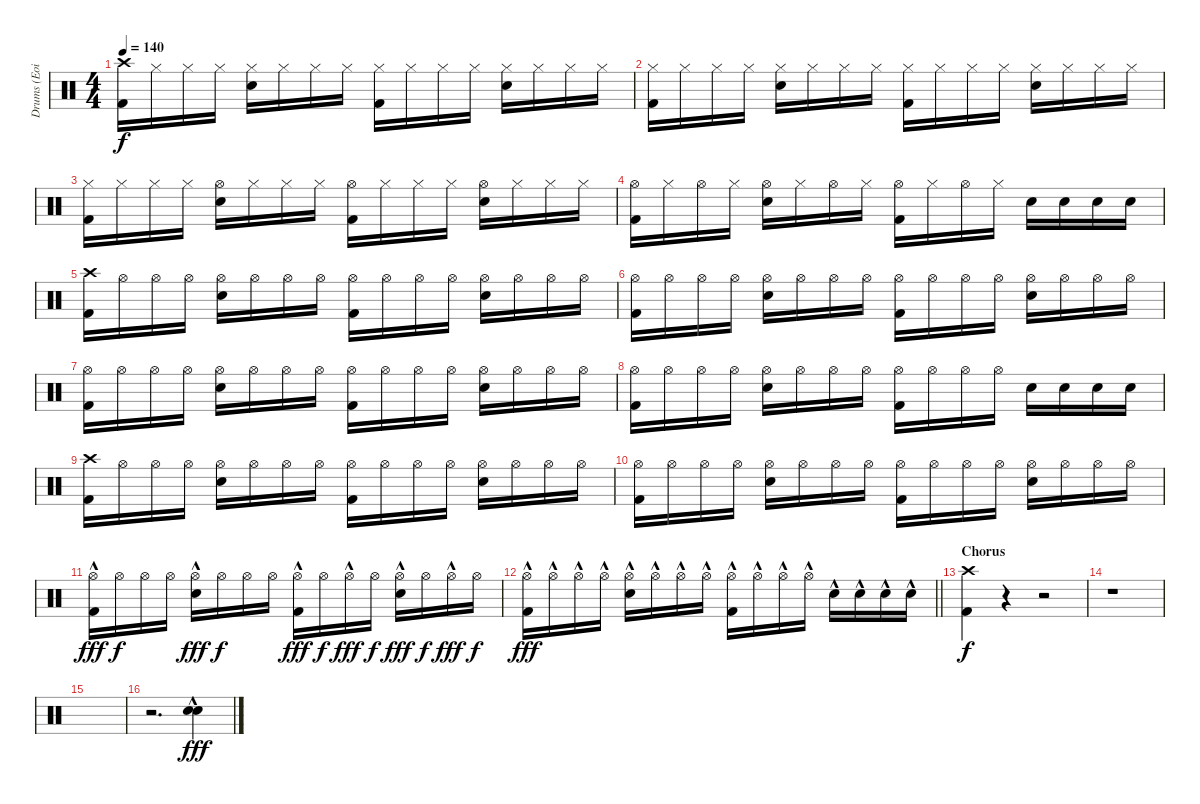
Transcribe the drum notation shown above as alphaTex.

\track ("Drums (Eoin)" "Drums (Eoi") {instrument percussion}
\staff {score}
\articulation defaults
\ts (4 4)
\tempo 140
\clef neutral
\ks c
("Crash high (hit)" "Kick (hit) 2").16{dy f} "Hi-Hat (closed)".16 "Hi-Hat (closed)".16 "Hi-Hat (closed)".16 ("Hi-Hat (closed)" "Electric Snare (hit)").16 "Hi-Hat (closed)".16 "Hi-Hat (closed)".16 "Hi-Hat (closed)".16 ("Hi-Hat (closed)" "Kick (hit) 2").16 "Hi-Hat (closed)".16 "Hi-Hat (closed)".16 "Hi-Hat (closed)".16 ("Hi-Hat (closed)" "Electric Snare (hit)").16 "Hi-Hat (closed)".16 "Hi-Hat (closed)".16 "Hi-Hat (closed)".16 |
("Hi-Hat (closed)" "Kick (hit) 2").16 "Hi-Hat (closed)".16 "Hi-Hat (closed)".16 "Hi-Hat (closed)".16 ("Hi-Hat (closed)" "Electric Snare (hit)").16 "Hi-Hat (closed)".16 "Hi-Hat (closed)".16 "Hi-Hat (closed)".16 ("Hi-Hat (closed)" "Kick (hit) 2").16 "Hi-Hat (closed)".16 "Hi-Hat (closed)".16 "Hi-Hat (closed)".16 ("Hi-Hat (closed)" "Electric Snare (hit)").16 "Hi-Hat (closed)".16 "Hi-Hat (closed)".16 "Hi-Hat (closed)".16 |
("Hi-Hat (closed)" "Kick (hit) 2").16 "Hi-Hat (closed)".16 "Hi-Hat (closed)".16 "Hi-Hat (closed)".16 ("Hi-Hat (open)" "Electric Snare (hit)").16 "Hi-Hat (closed)".16 "Hi-Hat (closed)".16 "Hi-Hat (closed)".16 ("Hi-Hat (open)" "Kick (hit) 2").16 "Hi-Hat (closed)".16 "Hi-Hat (closed)".16 "Hi-Hat (closed)".16 ("Hi-Hat (open)" "Electric Snare (hit)").16 "Hi-Hat (closed)".16 "Hi-Hat (closed)".16 "Hi-Hat (closed)".16 |
("Hi-Hat (open)" "Kick (hit) 2").16 "Hi-Hat (closed)".16 "Hi-Hat (open)".16 "Hi-Hat (closed)".16 ("Hi-Hat (open)" "Electric Snare (hit)").16 "Hi-Hat (closed)".16 "Hi-Hat (open)".16 "Hi-Hat (closed)".16 ("Hi-Hat (open)" "Kick (hit) 2").16 "Hi-Hat (closed)".16 "Hi-Hat (open)".16 "Hi-Hat (closed)".16 "Electric Snare (hit)".16 "Electric Snare (hit)".16 "Electric Snare (hit)".16 "Electric Snare (hit)".16 |
("Crash high (hit)" "Kick (hit) 2").16 "Hi-Hat (open)".16 "Hi-Hat (open)".16 "Hi-Hat (open)".16 ("Hi-Hat (open)" "Electric Snare (hit)").16 "Hi-Hat (open)".16 "Hi-Hat (open)".16 "Hi-Hat (open)".16 ("Hi-Hat (open)" "Kick (hit) 2").16 "Hi-Hat (open)".16 "Hi-Hat (open)".16 "Hi-Hat (open)".16 ("Hi-Hat (open)" "Electric Snare (hit)").16 "Hi-Hat (open)".16 "Hi-Hat (open)".16 "Hi-Hat (open)".16 |
("Hi-Hat (open)" "Kick (hit) 2").16 "Hi-Hat (open)".16 "Hi-Hat (open)".16 "Hi-Hat (open)".16 ("Hi-Hat (open)" "Electric Snare (hit)").16 "Hi-Hat (open)".16 "Hi-Hat (open)".16 "Hi-Hat (open)".16 ("Hi-Hat (open)" "Kick (hit) 2").16 "Hi-Hat (open)".16 "Hi-Hat (open)".16 "Hi-Hat (open)".16 ("Hi-Hat (open)" "Electric Snare (hit)").16 "Hi-Hat (open)".16 "Hi-Hat (open)".16 "Hi-Hat (open)".16 |
("Hi-Hat (open)" "Kick (hit) 2").16 "Hi-Hat (open)".16 "Hi-Hat (open)".16 "Hi-Hat (open)".16 ("Hi-Hat (open)" "Electric Snare (hit)").16 "Hi-Hat (open)".16 "Hi-Hat (open)".16 "Hi-Hat (open)".16 ("Hi-Hat (open)" "Kick (hit) 2").16 "Hi-Hat (open)".16 "Hi-Hat (open)".16 "Hi-Hat (open)".16 ("Hi-Hat (open)" "Electric Snare (hit)").16 "Hi-Hat (open)".16 "Hi-Hat (open)".16 "Hi-Hat (open)".16 |
("Hi-Hat (open)" "Kick (hit) 2").16 "Hi-Hat (open)".16 "Hi-Hat (open)".16 "Hi-Hat (open)".16 ("Hi-Hat (open)" "Electric Snare (hit)").16 "Hi-Hat (open)".16 "Hi-Hat (open)".16 "Hi-Hat (open)".16 ("Hi-Hat (open)" "Kick (hit) 2").16 "Hi-Hat (open)".16 "Hi-Hat (open)".16 "Hi-Hat (open)".16 "Electric Snare (hit)".16 "Electric Snare (hit)".16 "Electric Snare (hit)".16 "Electric Snare (hit)".16 |
("Crash high (hit)" "Kick (hit) 2").16 "Hi-Hat (open)".16 "Hi-Hat (open)".16 "Hi-Hat (open)".16 ("Hi-Hat (open)" "Electric Snare (hit)").16 "Hi-Hat (open)".16 "Hi-Hat (open)".16 "Hi-Hat (open)".16 ("Hi-Hat (open)" "Kick (hit) 2").16 "Hi-Hat (open)".16 "Hi-Hat (open)".16 "Hi-Hat (open)".16 ("Hi-Hat (open)" "Electric Snare (hit)").16 "Hi-Hat (open)".16 "Hi-Hat (open)".16 "Hi-Hat (open)".16 |
("Hi-Hat (open)" "Kick (hit) 2").16 "Hi-Hat (open)".16 "Hi-Hat (open)".16 "Hi-Hat (open)".16 ("Hi-Hat (open)" "Electric Snare (hit)").16 "Hi-Hat (open)".16 "Hi-Hat (open)".16 "Hi-Hat (open)".16 ("Hi-Hat (open)" "Kick (hit) 2").16 "Hi-Hat (open)".16 "Hi-Hat (open)".16 "Hi-Hat (open)".16 ("Hi-Hat (open)" "Electric Snare (hit)").16 "Hi-Hat (open)".16 "Hi-Hat (open)".16 "Hi-Hat (open)".16 |
("Hi-Hat (open)"{hac} "Kick (hit) 2").16{dy fff} "Hi-Hat (open)".16{dy f} "Hi-Hat (open)".16 "Hi-Hat (open)".16 ("Hi-Hat (open)"{hac} "Electric Snare (hit)").16{dy fff} "Hi-Hat (open)".16{dy f} "Hi-Hat (open)".16 "Hi-Hat (open)".16 ("Hi-Hat (open)"{hac} "Kick (hit) 2").16{dy fff} "Hi-Hat (open)".16{dy f} "Hi-Hat (open)"{hac}.16{dy fff} "Hi-Hat (open)".16{dy f} ("Hi-Hat (open)"{hac} "Electric Snare (hit)").16{dy fff} "Hi-Hat (open)".16{dy f} "Hi-Hat (open)"{hac}.16{dy fff} "Hi-Hat (open)".16{dy f} |
\barLineRight lightlight
("Hi-Hat (open)"{hac} "Kick (hit) 2").16{dy fff} "Hi-Hat (open)"{hac}.16 "Hi-Hat (open)"{hac}.16 "Hi-Hat (open)"{hac}.16 ("Hi-Hat (open)"{hac} "Electric Snare (hit)").16 "Hi-Hat (open)"{hac}.16 "Hi-Hat (open)"{hac}.16 "Hi-Hat (open)"{hac}.16 ("Hi-Hat (open)"{hac} "Kick (hit) 2").16 "Hi-Hat (open)"{hac}.16 "Hi-Hat (open)"{hac}.16 "Hi-Hat (open)"{hac}.16 "Electric Snare (hit)"{hac}.16 "Electric Snare (hit)"{hac}.16 "Electric Snare (hit)"{hac}.16 "Electric Snare (hit)"{hac}.16 |
\section ("" "Chorus")
("Crash high (hit)" "Kick (hit) 2").4{dy f} r.4 r.2 |
r.1 |
|
r.2{d} ("Electric Snare (hit)"{hac} "Electric Snare (hit)"{hac}).4{dy fff}
